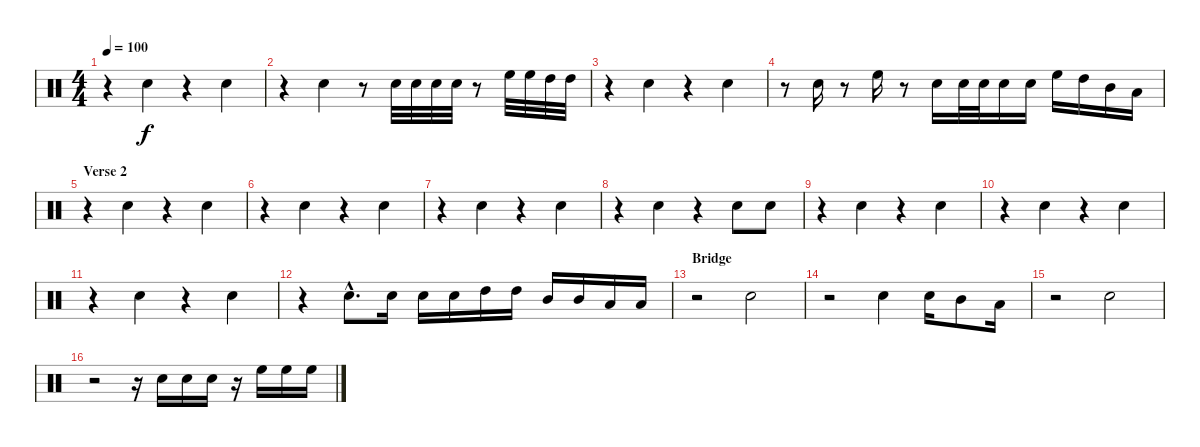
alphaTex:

\track "" {instrument percussion}
\staff {score}
\articulation defaults
\ts (4 4)
\tempo 100
\clef neutral
\ks c
r.4{dy f} "Electric Snare (hit)".4 r.4 "Electric Snare (hit)".4 |
r.4 "Electric Snare (hit)".4 r.8 "Electric Snare (hit)".32 "Electric Snare (hit)".32 "Electric Snare (hit)".32 "Electric Snare (hit)".32 r.8 "High Floor Tom (hit)".32 "High Floor Tom (hit)".32 "High Tom (hit)".32 "High Tom (hit)".32 |
r.4 "Electric Snare (hit)".4 r.4 "Electric Snare (hit)".4 |
r.8 "Electric Snare (hit)".16 r.8 "High Floor Tom (hit)".16 r.8 "Electric Snare (hit)".16 "Electric Snare (hit)".32 "Electric Snare (hit)".32 "Electric Snare (hit)".16 "Electric Snare (hit)".16 "High Floor Tom (hit)".16 "High Tom (hit)".16 "Mid Tom (hit)".16 "Low Tom (hit)".16 |
\section ("" "Verse 2")
r.4 "Electric Snare (hit)".4 r.4 "Electric Snare (hit)".4 |
r.4 "Electric Snare (hit)".4 r.4 "Electric Snare (hit)".4 |
r.4 "Electric Snare (hit)".4 r.4 "Electric Snare (hit)".4 |
r.4 "Electric Snare (hit)".4 r.4 "Electric Snare (hit)".8 "Electric Snare (hit)".8 |
r.4 "Electric Snare (hit)".4 r.4 "Electric Snare (hit)".4 |
r.4 "Electric Snare (hit)".4 r.4 "Electric Snare (hit)".4 |
r.4 "Electric Snare (hit)".4 r.4 "Electric Snare (hit)".4 |
r.4 "Electric Snare (hit)"{hac}.8{d} "Electric Snare (hit)".16 "Electric Snare (hit)".16 "Electric Snare (hit)".16 "High Tom (hit)".16 "High Tom (hit)".16 "Mid Tom (hit)".16 "Mid Tom (hit)".16 "Low Tom (hit)".16 "Low Tom (hit)".16 |
\section ("" "Bridge")
r.2 "Electric Snare (hit)".2 |
r.2 "Electric Snare (hit)".4 "Electric Snare (hit)".16 "Mid Tom (hit)".8 "Low Tom (hit)".16 |
r.2 "Electric Snare (hit)".2 |
r.2 r.16 "Electric Snare (hit)".16 "Electric Snare (hit)".16 "Electric Snare (hit)".16 r.16 "High Floor Tom (hit)".16 "High Floor Tom (hit)".16 "High Floor Tom (hit)".16
